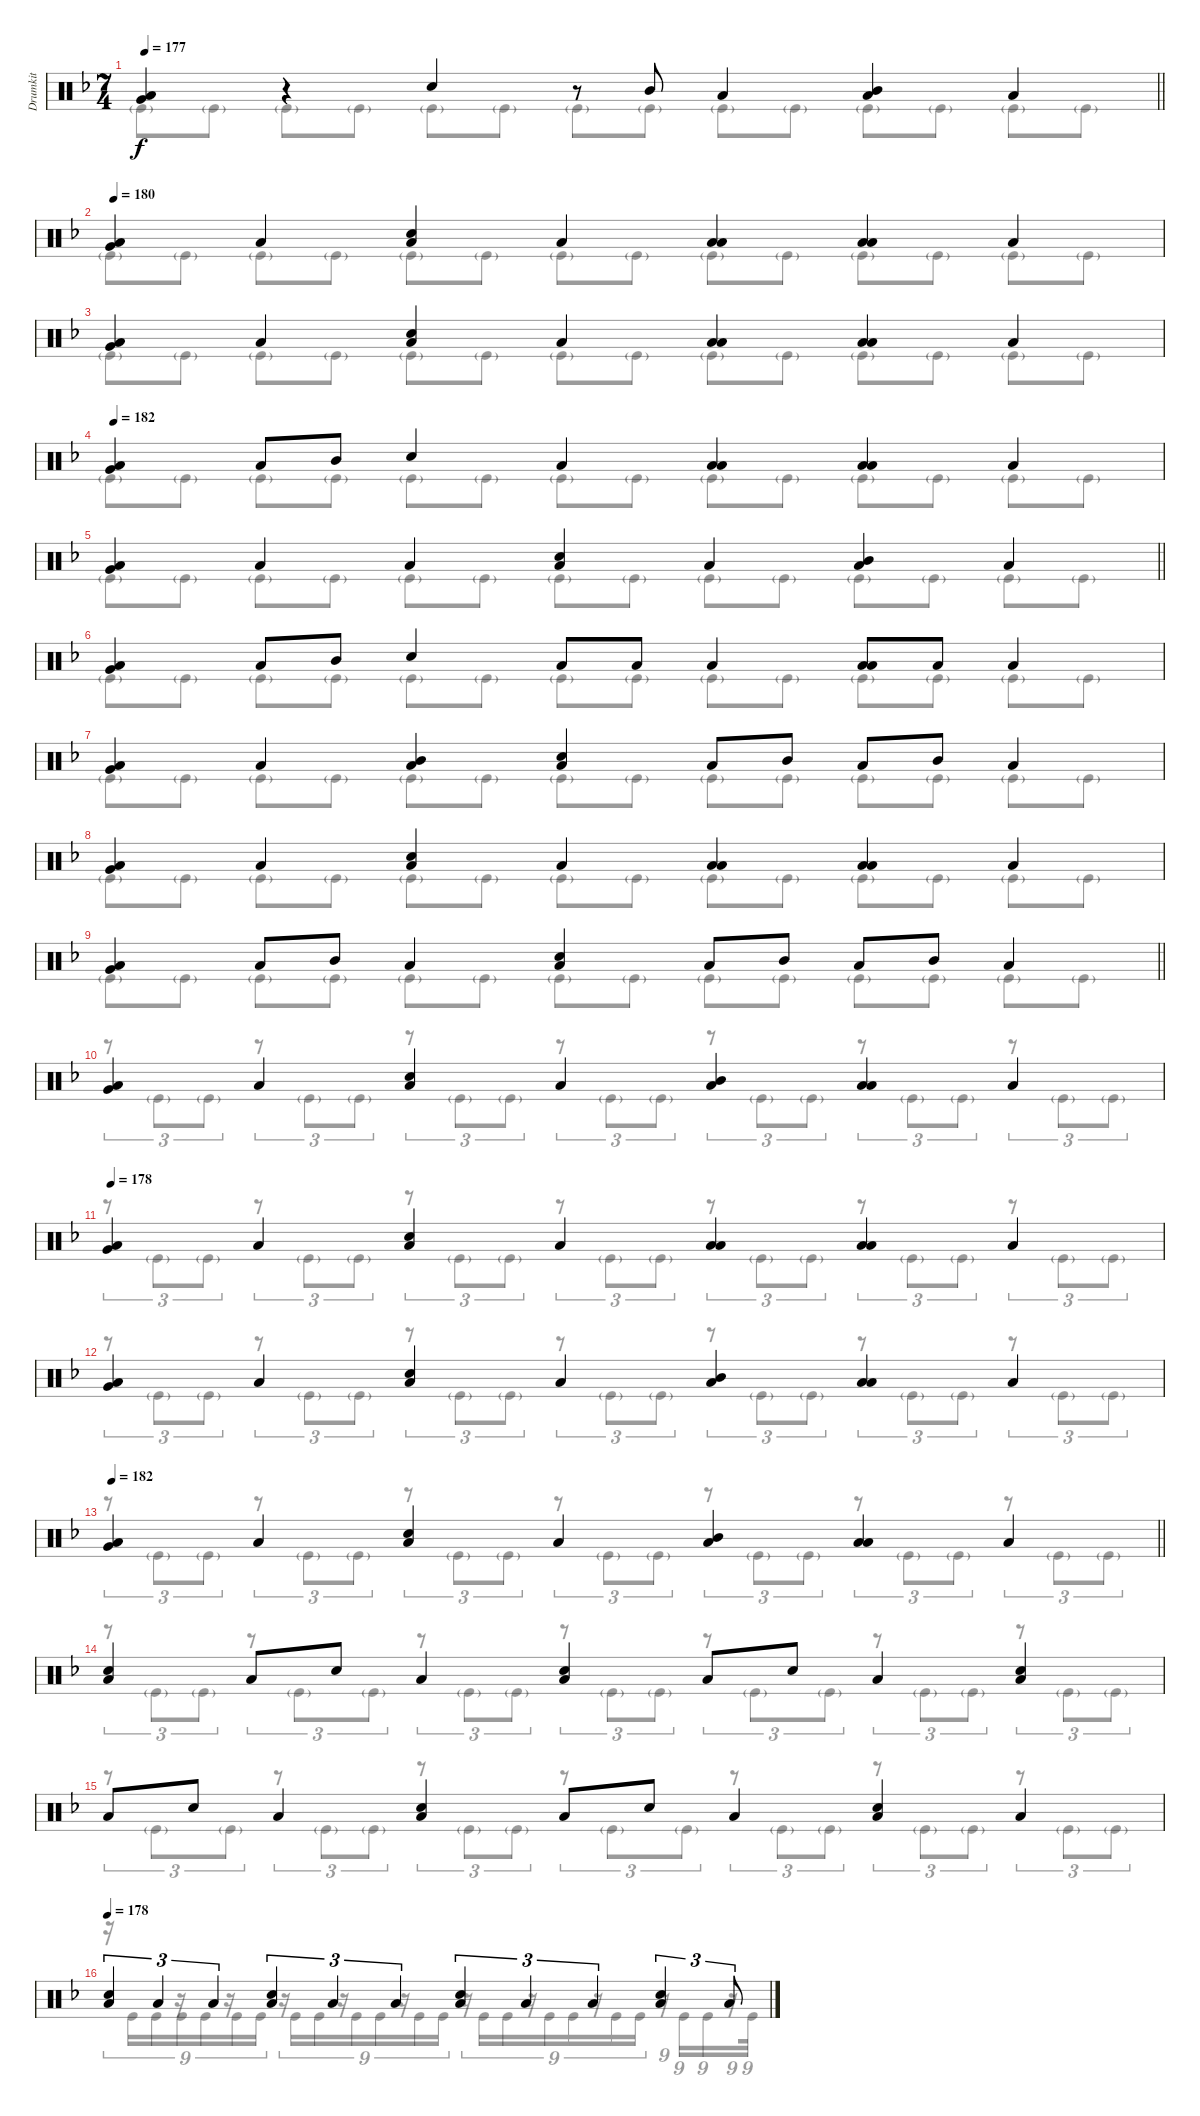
\track ("Drumkit" "Drumkit") {instrument percussion}
\staff {score}
\articulation defaults
\voice
\ts (7 4)
\tempo 177
\clef neutral
\barLineRight lightlight
\ks dminor
("Low Floor Tom (hit)" "Very Low Tom (hit)").4{dy f} r.4 "Snare (hit) 2".4 r.8 "Mid Tom (hit)".8 "Low Floor Tom (hit)".4 ("Low Floor Tom (hit)" "Mid Tom (hit)").4 "Low Floor Tom (hit)".4 |
\tempo 180
("Low Floor Tom (hit)" "Very Low Tom (hit)").4 "Low Floor Tom (hit)".4 ("Snare (hit) 2" "Low Floor Tom (hit)").4 "Low Floor Tom (hit)".4 ("Low Tom (hit)" "Low Floor Tom (hit)").4 ("Low Tom (hit)" "Low Floor Tom (hit)").4 "Low Floor Tom (hit)".4 |
("Low Floor Tom (hit)" "Very Low Tom (hit)").4 "Low Floor Tom (hit)".4 ("Snare (hit) 2" "Low Floor Tom (hit)").4 "Low Floor Tom (hit)".4 ("Low Tom (hit)" "Low Floor Tom (hit)").4 ("Low Tom (hit)" "Low Floor Tom (hit)").4 "Low Floor Tom (hit)".4 |
\tempo 182
("Low Floor Tom (hit)" "Very Low Tom (hit)").4 "Low Floor Tom (hit)".8 "Mid Tom (hit)".8 "Snare (hit) 2".4 "Low Floor Tom (hit)".4 ("Low Tom (hit)" "Low Floor Tom (hit)").4 ("Low Tom (hit)" "Low Floor Tom (hit)").4 "Low Floor Tom (hit)".4 |
\barLineRight lightlight
("Low Floor Tom (hit)" "Very Low Tom (hit)").4 "Low Floor Tom (hit)".4 "Low Floor Tom (hit)".4 ("Snare (hit) 2" "Low Floor Tom (hit)").4 "Low Floor Tom (hit)".4 ("Mid Tom (hit)" "Low Floor Tom (hit)").4 "Low Floor Tom (hit)".4 |
("Low Floor Tom (hit)" "Very Low Tom (hit)").4 "Low Floor Tom (hit)".8 "Mid Tom (hit)".8 "Snare (hit) 2".4 "Low Floor Tom (hit)".8 "Low Tom (hit)".8 "Low Floor Tom (hit)".4 ("Low Floor Tom (hit)" "Low Tom (hit)").8 "Low Floor Tom (hit)".8 "Low Floor Tom (hit)".4 |
("Low Floor Tom (hit)" "Very Low Tom (hit)").4 "Low Floor Tom (hit)".4 ("Low Floor Tom (hit)" "Mid Tom (hit)").4 ("Snare (hit) 2" "Low Floor Tom (hit)").4 "Low Floor Tom (hit)".8 "Mid Tom (hit)".8 "Low Floor Tom (hit)".8 "Mid Tom (hit)".8 "Low Floor Tom (hit)".4 |
("Low Floor Tom (hit)" "Very Low Tom (hit)").4 "Low Floor Tom (hit)".4 ("Snare (hit) 2" "Low Floor Tom (hit)").4 "Low Floor Tom (hit)".4 ("Low Tom (hit)" "Low Floor Tom (hit)").4 ("Low Tom (hit)" "Low Floor Tom (hit)").4 "Low Floor Tom (hit)".4 |
\barLineRight lightlight
("Low Floor Tom (hit)" "Very Low Tom (hit)").4 "Low Floor Tom (hit)".8 "Mid Tom (hit)".8 "Low Floor Tom (hit)".4 ("Snare (hit) 2" "Low Floor Tom (hit)").4 "Low Floor Tom (hit)".8 "Mid Tom (hit)".8 "Low Floor Tom (hit)".8 "Mid Tom (hit)".8 "Low Floor Tom (hit)".4 |
\section ("" "")
("Low Floor Tom (hit)" "Very Low Tom (hit)").4 "Low Floor Tom (hit)".4 ("Snare (hit) 2" "Low Floor Tom (hit)").4 "Low Floor Tom (hit)".4 ("Mid Tom (hit)" "Low Floor Tom (hit)").4 ("Low Tom (hit)" "Low Floor Tom (hit)").4 "Low Floor Tom (hit)".4 |
\tempo 178
("Low Floor Tom (hit)" "Very Low Tom (hit)").4 "Low Floor Tom (hit)".4 ("Snare (hit) 2" "Low Floor Tom (hit)").4 "Low Floor Tom (hit)".4 ("Low Tom (hit)" "Low Floor Tom (hit)").4 ("Low Tom (hit)" "Low Floor Tom (hit)").4 "Low Floor Tom (hit)".4 |
("Low Floor Tom (hit)" "Very Low Tom (hit)").4 "Low Floor Tom (hit)".4 ("Snare (hit) 2" "Low Floor Tom (hit)").4 "Low Floor Tom (hit)".4 ("Mid Tom (hit)" "Low Floor Tom (hit)").4 ("Low Tom (hit)" "Low Floor Tom (hit)").4 "Low Floor Tom (hit)".4 |
\tempo 182
\barLineRight lightlight
("Low Floor Tom (hit)" "Very Low Tom (hit)").4 "Low Floor Tom (hit)".4 ("Snare (hit) 2" "Low Floor Tom (hit)").4 "Low Floor Tom (hit)".4 ("Mid Tom (hit)" "Low Floor Tom (hit)").4 ("Low Tom (hit)" "Low Floor Tom (hit)").4 "Low Floor Tom (hit)".4 |
("Low Floor Tom (hit)" "Snare (hit) 2").4 "Low Floor Tom (hit)".8 "Snare (hit) 2".8 "Low Floor Tom (hit)".4 ("Snare (hit) 2" "Low Floor Tom (hit)").4 "Low Floor Tom (hit)".8 "Snare (hit) 2".8 "Low Floor Tom (hit)".4 ("Snare (hit) 2" "Low Floor Tom (hit)").4 |
"Low Floor Tom (hit)".8 "Snare (hit) 2".8 "Low Floor Tom (hit)".4 ("Snare (hit) 2" "Low Floor Tom (hit)").4 "Low Floor Tom (hit)".8 "Snare (hit) 2".8 "Low Floor Tom (hit)".4 ("Snare (hit) 2" "Low Floor Tom (hit)").4 "Low Floor Tom (hit)".4 |
\tempo 178
("Low Floor Tom (hit)" "Snare (hit) 2").4{tu (3 2)} "Low Floor Tom (hit)".4{tu (3 2)} "Low Floor Tom (hit)".4{tu (3 2)} ("Low Floor Tom (hit)" "Snare (hit) 2").4{tu (3 2)} "Low Floor Tom (hit)".4{tu (3 2)} "Low Floor Tom (hit)".4{tu (3 2)} ("Low Floor Tom (hit)" "Snare (hit) 2").4{tu (3 2)} "Low Floor Tom (hit)".4{tu (3 2)} "Low Floor Tom (hit)".4{tu (3 2)} ("Low Floor Tom (hit)" "Snare (hit) 2").4{tu (3 2)} "Low Floor Tom (hit)".8{tu (3 2)}
\voice
\clef neutral
\ottava regular
\simile none
\barLineRight lightlight
\ks dminor "Kick (hit)"{g}.8{dy f} "Kick (hit)"{g}.8 "Kick (hit)"{g}.8 "Kick (hit)"{g}.8 "Kick (hit)"{g}.8 "Kick (hit)"{g}.8 "Kick (hit)"{g}.8 "Kick (hit)"{g}.8 "Kick (hit)"{g}.8 "Kick (hit)"{g}.8 "Kick (hit)"{g}.8 "Kick (hit)"{g}.8 "Kick (hit)"{g}.8 "Kick (hit)"{g}.8
|
"Kick (hit)"{g}.8 "Kick (hit)"{g}.8 "Kick (hit)"{g}.8 "Kick (hit)"{g}.8 "Kick (hit)"{g}.8 "Kick (hit)"{g}.8 "Kick (hit)"{g}.8 "Kick (hit)"{g}.8 "Kick (hit)"{g}.8 "Kick (hit)"{g}.8 "Kick (hit)"{g}.8 "Kick (hit)"{g}.8 "Kick (hit)"{g}.8 "Kick (hit)"{g}.8 |
"Kick (hit)"{g}.8 "Kick (hit)"{g}.8 "Kick (hit)"{g}.8 "Kick (hit)"{g}.8 "Kick (hit)"{g}.8 "Kick (hit)"{g}.8 "Kick (hit)"{g}.8 "Kick (hit)"{g}.8 "Kick (hit)"{g}.8 "Kick (hit)"{g}.8 "Kick (hit)"{g}.8 "Kick (hit)"{g}.8 "Kick (hit)"{g}.8 "Kick (hit)"{g}.8 |
"Kick (hit)"{g}.8 "Kick (hit)"{g}.8 "Kick (hit)"{g}.8 "Kick (hit)"{g}.8 "Kick (hit)"{g}.8 "Kick (hit)"{g}.8 "Kick (hit)"{g}.8 "Kick (hit)"{g}.8 "Kick (hit)"{g}.8 "Kick (hit)"{g}.8 "Kick (hit)"{g}.8 "Kick (hit)"{g}.8 "Kick (hit)"{g}.8 "Kick (hit)"{g}.8 |
\barLineRight lightlight "Kick (hit)"{g}.8 "Kick (hit)"{g}.8 "Kick (hit)"{g}.8 "Kick (hit)"{g}.8 "Kick (hit)"{g}.8 "Kick (hit)"{g}.8 "Kick (hit)"{g}.8 "Kick (hit)"{g}.8 "Kick (hit)"{g}.8 "Kick (hit)"{g}.8 "Kick (hit)"{g}.8 "Kick (hit)"{g}.8 "Kick (hit)"{g}.8 "Kick (hit)"{g}.8
|
"Kick (hit)"{g}.8 "Kick (hit)"{g}.8 "Kick (hit)"{g}.8 "Kick (hit)"{g}.8 "Kick (hit)"{g}.8 "Kick (hit)"{g}.8 "Kick (hit)"{g}.8 "Kick (hit)"{g}.8 "Kick (hit)"{g}.8 "Kick (hit)"{g}.8 "Kick (hit)"{g}.8 "Kick (hit)"{g}.8 "Kick (hit)"{g}.8 "Kick (hit)"{g}.8 |
"Kick (hit)"{g}.8 "Kick (hit)"{g}.8 "Kick (hit)"{g}.8 "Kick (hit)"{g}.8 "Kick (hit)"{g}.8 "Kick (hit)"{g}.8 "Kick (hit)"{g}.8 "Kick (hit)"{g}.8 "Kick (hit)"{g}.8 "Kick (hit)"{g}.8 "Kick (hit)"{g}.8 "Kick (hit)"{g}.8 "Kick (hit)"{g}.8 "Kick (hit)"{g}.8 |
"Kick (hit)"{g}.8 "Kick (hit)"{g}.8 "Kick (hit)"{g}.8 "Kick (hit)"{g}.8 "Kick (hit)"{g}.8 "Kick (hit)"{g}.8 "Kick (hit)"{g}.8 "Kick (hit)"{g}.8 "Kick (hit)"{g}.8 "Kick (hit)"{g}.8 "Kick (hit)"{g}.8 "Kick (hit)"{g}.8 "Kick (hit)"{g}.8 "Kick (hit)"{g}.8 |
\barLineRight lightlight "Kick (hit)"{g}.8 "Kick (hit)"{g}.8 "Kick (hit)"{g}.8 "Kick (hit)"{g}.8 "Kick (hit)"{g}.8 "Kick (hit)"{g}.8 "Kick (hit)"{g}.8 "Kick (hit)"{g}.8 "Kick (hit)"{g}.8 "Kick (hit)"{g}.8 "Kick (hit)"{g}.8 "Kick (hit)"{g}.8 "Kick (hit)"{g}.8 "Kick (hit)"{g}.8
|
r.8{tu (3 2)} "Kick (hit)"{g}.8{tu (3 2)} "Kick (hit)"{g}.8{tu (3 2)} r.8{tu (3 2)} "Kick (hit)"{g}.8{tu (3 2)} "Kick (hit)"{g}.8{tu (3 2)} r.8{tu (3 2)} "Kick (hit)"{g}.8{tu (3 2)} "Kick (hit)"{g}.8{tu (3 2)} r.8{tu (3 2)} "Kick (hit)"{g}.8{tu (3 2)} "Kick (hit)"{g}.8{tu (3 2)} r.8{tu (3 2)} "Kick (hit)"{g}.8{tu (3 2)} "Kick (hit)"{g}.8{tu (3 2)} r.8{tu (3 2)} "Kick (hit)"{g}.8{tu (3 2)} "Kick (hit)"{g}.8{tu (3 2)} r.8{tu (3 2)} "Kick (hit)"{g}.8{tu (3 2)} "Kick (hit)"{g}.8{tu (3 2)} |
r.8{tu (3 2)} "Kick (hit)"{g}.8{tu (3 2)} "Kick (hit)"{g}.8{tu (3 2)} r.8{tu (3 2)} "Kick (hit)"{g}.8{tu (3 2)} "Kick (hit)"{g}.8{tu (3 2)} r.8{tu (3 2)} "Kick (hit)"{g}.8{tu (3 2)} "Kick (hit)"{g}.8{tu (3 2)} r.8{tu (3 2)} "Kick (hit)"{g}.8{tu (3 2)} "Kick (hit)"{g}.8{tu (3 2)} r.8{tu (3 2)} "Kick (hit)"{g}.8{tu (3 2)} "Kick (hit)"{g}.8{tu (3 2)} r.8{tu (3 2)} "Kick (hit)"{g}.8{tu (3 2)} "Kick (hit)"{g}.8{tu (3 2)} r.8{tu (3 2)} "Kick (hit)"{g}.8{tu (3 2)} "Kick (hit)"{g}.8{tu (3 2)} |
r.8{tu (3 2)} "Kick (hit)"{g}.8{tu (3 2)} "Kick (hit)"{g}.8{tu (3 2)} r.8{tu (3 2)} "Kick (hit)"{g}.8{tu (3 2)} "Kick (hit)"{g}.8{tu (3 2)} r.8{tu (3 2)} "Kick (hit)"{g}.8{tu (3 2)} "Kick (hit)"{g}.8{tu (3 2)} r.8{tu (3 2)} "Kick (hit)"{g}.8{tu (3 2)} "Kick (hit)"{g}.8{tu (3 2)} r.8{tu (3 2)} "Kick (hit)"{g}.8{tu (3 2)} "Kick (hit)"{g}.8{tu (3 2)} r.8{tu (3 2)} "Kick (hit)"{g}.8{tu (3 2)} "Kick (hit)"{g}.8{tu (3 2)} r.8{tu (3 2)} "Kick (hit)"{g}.8{tu (3 2)} "Kick (hit)"{g}.8{tu (3 2)} |
\barLineRight lightlight
r.8{tu (3 2)} "Kick (hit)"{g}.8{tu (3 2)} "Kick (hit)"{g}.8{tu (3 2)} r.8{tu (3 2)} "Kick (hit)"{g}.8{tu (3 2)} "Kick (hit)"{g}.8{tu (3 2)} r.8{tu (3 2)} "Kick (hit)"{g}.8{tu (3 2)} "Kick (hit)"{g}.8{tu (3 2)} r.8{tu (3 2)} "Kick (hit)"{g}.8{tu (3 2)} "Kick (hit)"{g}.8{tu (3 2)} r.8{tu (3 2)} "Kick (hit)"{g}.8{tu (3 2)} "Kick (hit)"{g}.8{tu (3 2)} r.8{tu (3 2)} "Kick (hit)"{g}.8{tu (3 2)} "Kick (hit)"{g}.8{tu (3 2)} r.8{tu (3 2)} "Kick (hit)"{g}.8{tu (3 2)} "Kick (hit)"{g}.8{tu (3 2)} |
r.8{tu (3 2)} "Kick (hit)"{g}.8{tu (3 2)} "Kick (hit)"{g}.8{tu (3 2)} r.8{tu (3 2)} "Kick (hit)"{g}.8{tu (3 2)} "Kick (hit)"{g}.8{tu (3 2)} r.8{tu (3 2)} "Kick (hit)"{g}.8{tu (3 2)} "Kick (hit)"{g}.8{tu (3 2)} r.8{tu (3 2)} "Kick (hit)"{g}.8{tu (3 2)} "Kick (hit)"{g}.8{tu (3 2)} r.8{tu (3 2)} "Kick (hit)"{g}.8{tu (3 2)} "Kick (hit)"{g}.8{tu (3 2)} r.8{tu (3 2)} "Kick (hit)"{g}.8{tu (3 2)} "Kick (hit)"{g}.8{tu (3 2)} r.8{tu (3 2)} "Kick (hit)"{g}.8{tu (3 2)} "Kick (hit)"{g}.8{tu (3 2)} |
r.8{tu (3 2)} "Kick (hit)"{g}.8{tu (3 2)} "Kick (hit)"{g}.8{tu (3 2)} r.8{tu (3 2)} "Kick (hit)"{g}.8{tu (3 2)} "Kick (hit)"{g}.8{tu (3 2)} r.8{tu (3 2)} "Kick (hit)"{g}.8{tu (3 2)} "Kick (hit)"{g}.8{tu (3 2)} r.8{tu (3 2)} "Kick (hit)"{g}.8{tu (3 2)} "Kick (hit)"{g}.8{tu (3 2)} r.8{tu (3 2)} "Kick (hit)"{g}.8{tu (3 2)} "Kick (hit)"{g}.8{tu (3 2)} r.8{tu (3 2)} "Kick (hit)"{g}.8{tu (3 2)} "Kick (hit)"{g}.8{tu (3 2)} r.8{tu (3 2)} "Kick (hit)"{g}.8{tu (3 2)} "Kick (hit)"{g}.8{tu (3 2)} |
r.16{tu (9 8)} "Kick (hit)".16{tu (9 8)} "Kick (hit)".16{tu (9 8)} r.16{tu (9 8)} "Kick (hit)".16{tu (9 8)} "Kick (hit)".16{tu (9 8)} r.16{tu (9 8)} "Kick (hit)".16{tu (9 8)} "Kick (hit)".16{tu (9 8)} r.16{tu (9 8)} "Kick (hit)".16{tu (9 8)} "Kick (hit)".16{tu (9 8)} r.16{tu (9 8)} "Kick (hit)".16{tu (9 8)} "Kick (hit)".16{tu (9 8)} r.16{tu (9 8)} "Kick (hit)".16{tu (9 8)} "Kick (hit)".16{tu (9 8)} r.16{tu (9 8)} "Kick (hit)".16{tu (9 8)} "Kick (hit)".16{tu (9 8)} r.16{tu (9 8)} "Kick (hit)".16{tu (9 8)} "Kick (hit)".16{tu (9 8)} r.16{tu (9 8)} "Kick (hit)".16{tu (9 8)} "Kick (hit)".16{tu (9 8)} r.16{tu (9 8)} "Kick (hit)".16{tu (9 8)} "Kick (hit)".16{tu (9 8)} r.16{tu (9 8)} "Kick (hit)".32{tu (9 8)}
